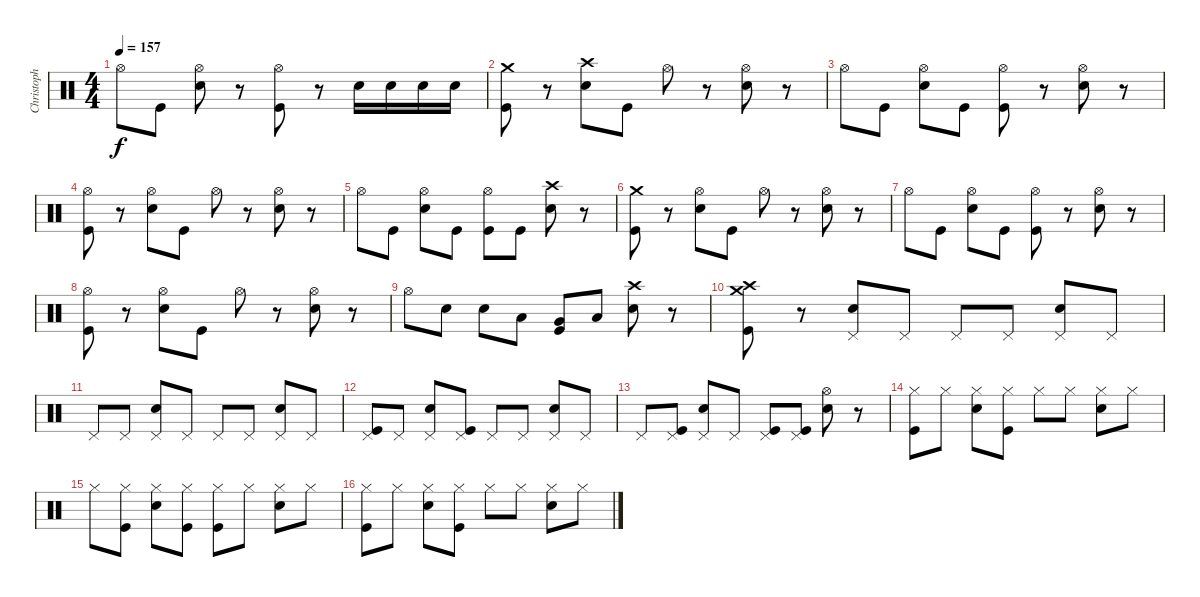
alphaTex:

\track ("Christoph" "Christoph") {instrument percussion}
\staff {score}
\articulation defaults
\ts (4 4)
\tempo 157
\clef neutral
\ks c "Hi-Hat (open)".8{dy f} "Kick (hit)".8
("Hi-Hat (open)" "Snare (hit) 2").8 r.8 ("Hi-Hat (open)" "Kick (hit)").8 r.8 "Snare (hit) 2".16 "Snare (hit) 2".16 "Snare (hit) 2".16 "Snare (hit) 2".16 |
("Crash medium (hit)" "Kick (hit)").8 r.8 ("Crash high (hit)" "Snare (hit) 2").8 "Kick (hit)".8 "Hi-Hat (open)".8 r.8 ("Hi-Hat (open)" "Snare (hit) 2").8 r.8 |
"Hi-Hat (open)".8 "Kick (hit)".8 ("Hi-Hat (open)" "Snare (hit) 2").8 "Kick (hit)".8 ("Hi-Hat (open)" "Kick (hit)").8 r.8 ("Hi-Hat (open)" "Snare (hit) 2").8 r.8 |
("Hi-Hat (open)" "Kick (hit)").8 r.8 ("Hi-Hat (open)" "Snare (hit) 2").8 "Kick (hit)".8 "Hi-Hat (open)".8 r.8 ("Hi-Hat (open)" "Snare (hit) 2").8 r.8 |
"Hi-Hat (open)".8 "Kick (hit)".8 ("Hi-Hat (open)" "Snare (hit) 2").8 "Kick (hit)".8 ("Hi-Hat (open)" "Kick (hit)").8 "Kick (hit)".8 ("Snare (hit) 2" "Crash high (hit)").8 r.8 |
("Crash medium (hit)" "Kick (hit)").8 r.8 ("Hi-Hat (open)" "Snare (hit) 2").8 "Kick (hit)".8 "Hi-Hat (open)".8 r.8 ("Hi-Hat (open)" "Snare (hit) 2").8 r.8 |
"Hi-Hat (open)".8 "Kick (hit)".8 ("Hi-Hat (open)" "Snare (hit) 2").8 "Kick (hit)".8 ("Hi-Hat (open)" "Kick (hit)").8 r.8 ("Hi-Hat (open)" "Snare (hit) 2").8 r.8 |
("Hi-Hat (open)" "Kick (hit)").8 r.8 ("Hi-Hat (open)" "Snare (hit) 2").8 "Kick (hit)".8 "Hi-Hat (open)".8 r.8 ("Hi-Hat (open)" "Snare (hit) 2").8 r.8 |
"Hi-Hat (open)".8 "Snare (hit) 2".8 "Snare (hit) 2".8 "Low Floor Tom (hit)".8 ("Very Low Tom (hit)" "Kick (hit)").8 "Low Tom (hit)".8 ("Snare (hit) 2" "Crash high (hit)").8 r.8 |
("Kick (hit)" "Crash high (hit)" "Crash medium (hit)").8 r.8 ("Pedal Hi-Hat (hit)" "Snare (hit) 2").8 "Pedal Hi-Hat (hit)".8 "Pedal Hi-Hat (hit)".8 "Pedal Hi-Hat (hit)".8 ("Pedal Hi-Hat (hit)" "Snare (hit) 2").8 "Pedal Hi-Hat (hit)".8 |
"Pedal Hi-Hat (hit)".8 "Pedal Hi-Hat (hit)".8 ("Pedal Hi-Hat (hit)" "Snare (hit) 2").8 "Pedal Hi-Hat (hit)".8 "Pedal Hi-Hat (hit)".8 "Pedal Hi-Hat (hit)".8 ("Pedal Hi-Hat (hit)" "Snare (hit) 2").8 "Pedal Hi-Hat (hit)".8 |
("Pedal Hi-Hat (hit)" "Kick (hit)").8 "Pedal Hi-Hat (hit)".8 ("Pedal Hi-Hat (hit)" "Snare (hit) 2").8 ("Pedal Hi-Hat (hit)" "Kick (hit)").8 "Pedal Hi-Hat (hit)".8 "Pedal Hi-Hat (hit)".8 ("Pedal Hi-Hat (hit)" "Snare (hit) 2").8 "Pedal Hi-Hat (hit)".8 |
"Pedal Hi-Hat (hit)".8 ("Pedal Hi-Hat (hit)" "Kick (hit)").8 ("Pedal Hi-Hat (hit)" "Snare (hit) 2").8 "Pedal Hi-Hat (hit)".8 ("Pedal Hi-Hat (hit)" "Kick (hit)").8 ("Pedal Hi-Hat (hit)" "Kick (hit)").8 ("Hi-Hat (open)" "Snare (hit) 2").8 r.8 |
("Hi-Hat (closed)" "Kick (hit)").8 "Hi-Hat (closed)".8 ("Hi-Hat (closed)" "Snare (hit) 2").8 ("Hi-Hat (closed)" "Kick (hit)").8 "Hi-Hat (closed)".8 "Hi-Hat (closed)".8 ("Hi-Hat (closed)" "Snare (hit) 2").8 "Hi-Hat (closed)".8 |
"Hi-Hat (closed)".8 ("Hi-Hat (closed)" "Kick (hit)").8 ("Hi-Hat (closed)" "Snare (hit) 2").8 ("Hi-Hat (closed)" "Kick (hit)").8 ("Hi-Hat (closed)" "Kick (hit)").8 "Hi-Hat (closed)".8 ("Hi-Hat (closed)" "Snare (hit) 2").8 "Hi-Hat (closed)".8 |
("Hi-Hat (closed)" "Kick (hit)").8 "Hi-Hat (closed)".8 ("Hi-Hat (closed)" "Snare (hit) 2").8 ("Hi-Hat (closed)" "Kick (hit)").8 "Hi-Hat (closed)".8 "Hi-Hat (closed)".8 ("Hi-Hat (closed)" "Snare (hit) 2").8 "Hi-Hat (closed)".8
